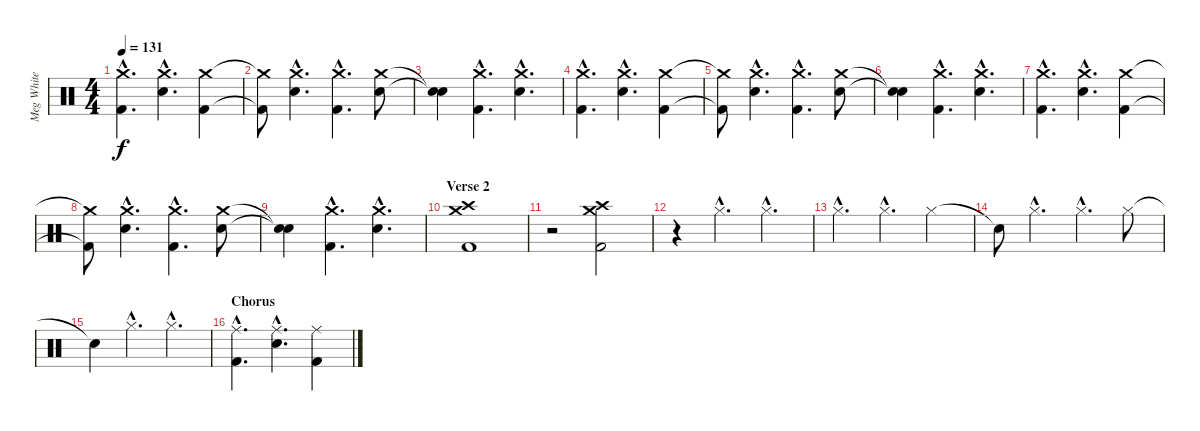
\track ("Meg White" "Meg White") {instrument percussion}
\staff {score}
\articulation defaults
\ts (4 4)
\tempo 131
\clef neutral
\ks c
("Kick (hit) 2"{hac} "Crash medium (hit)"{hac}).4{d dy f} ("Electric Snare (hit)"{hac} "Crash medium (hit)"{hac}).4{d} ("Kick (hit) 2" "Crash medium (hit)").4 |
("Kick (hit) 2"{t} "Crash medium (hit)"{t}).8 ("Electric Snare (hit)"{hac} "Crash medium (hit)"{hac}).4{d} ("Kick (hit) 2"{hac} "Crash medium (hit)"{hac}).4{d} ("Electric Snare (hit)" "Crash medium (hit)").8 |
("Snare (hit)"{t} "Snare (hit)"{t}).4 ("Kick (hit) 2"{hac} "Crash medium (hit)"{hac}).4{d} ("Electric Snare (hit)"{hac} "Crash medium (hit)"{hac}).4{d} |
("Kick (hit) 2"{hac} "Crash medium (hit)"{hac}).4{d} ("Electric Snare (hit)"{hac} "Crash medium (hit)"{hac}).4{d} ("Kick (hit) 2" "Crash medium (hit)").4 |
("Kick (hit) 2"{t} "Crash medium (hit)"{t}).8 ("Electric Snare (hit)"{hac} "Crash medium (hit)"{hac}).4{d} ("Kick (hit) 2"{hac} "Crash medium (hit)"{hac}).4{d} ("Electric Snare (hit)" "Crash medium (hit)").8 |
("Snare (hit)"{t} "Snare (hit)"{t}).4 ("Kick (hit) 2"{hac} "Crash medium (hit)"{hac}).4{d} ("Electric Snare (hit)"{hac} "Crash medium (hit)"{hac}).4{d} |
("Kick (hit) 2"{hac} "Crash medium (hit)"{hac}).4{d} ("Electric Snare (hit)"{hac} "Crash medium (hit)"{hac}).4{d} ("Kick (hit) 2" "Crash medium (hit)").4 |
("Kick (hit) 2"{t} "Crash medium (hit)"{t}).8 ("Electric Snare (hit)"{hac} "Crash medium (hit)"{hac}).4{d} ("Kick (hit) 2"{hac} "Crash medium (hit)"{hac}).4{d} ("Electric Snare (hit)" "Crash medium (hit)").8 |
("Snare (hit)"{t} "Snare (hit)"{t}).4 ("Kick (hit) 2"{hac} "Crash medium (hit)"{hac}).4{d} ("Electric Snare (hit)"{hac} "Crash medium (hit)"{hac}).4{d} |
\section ("" "Verse 2 ")
("Kick (hit) 2" "Crash high (hit)" "Crash medium (hit)").1 |
r.2 ("Kick (hit) 2" "Crash high (hit)" "Crash medium (hit)").2{volume 11} |
r.4 "Hi-Hat (closed)"{hac}.4{d} "Hi-Hat (closed)"{hac}.4{d} |
"Hi-Hat (closed)"{hac}.4{d} "Hi-Hat (closed)"{hac}.4{d} "Hi-Hat (closed)".4 |
"Snare (hit)"{t}.8 "Hi-Hat (closed)"{hac}.4{d} "Hi-Hat (closed)"{hac}.4{d} "Hi-Hat (closed)".8 |
"Snare (hit)"{t}.4 "Hi-Hat (closed)"{hac}.4{d} "Hi-Hat (closed)"{hac}.4{d} |
\section ("" "Chorus")
("Kick (hit) 2"{hac} "Ride (middle)"{hac}).4{d} ("Electric Snare (hit)"{hac} "Ride (middle)"{hac}).4{d} ("Kick (hit) 2" "Ride (middle)").4
